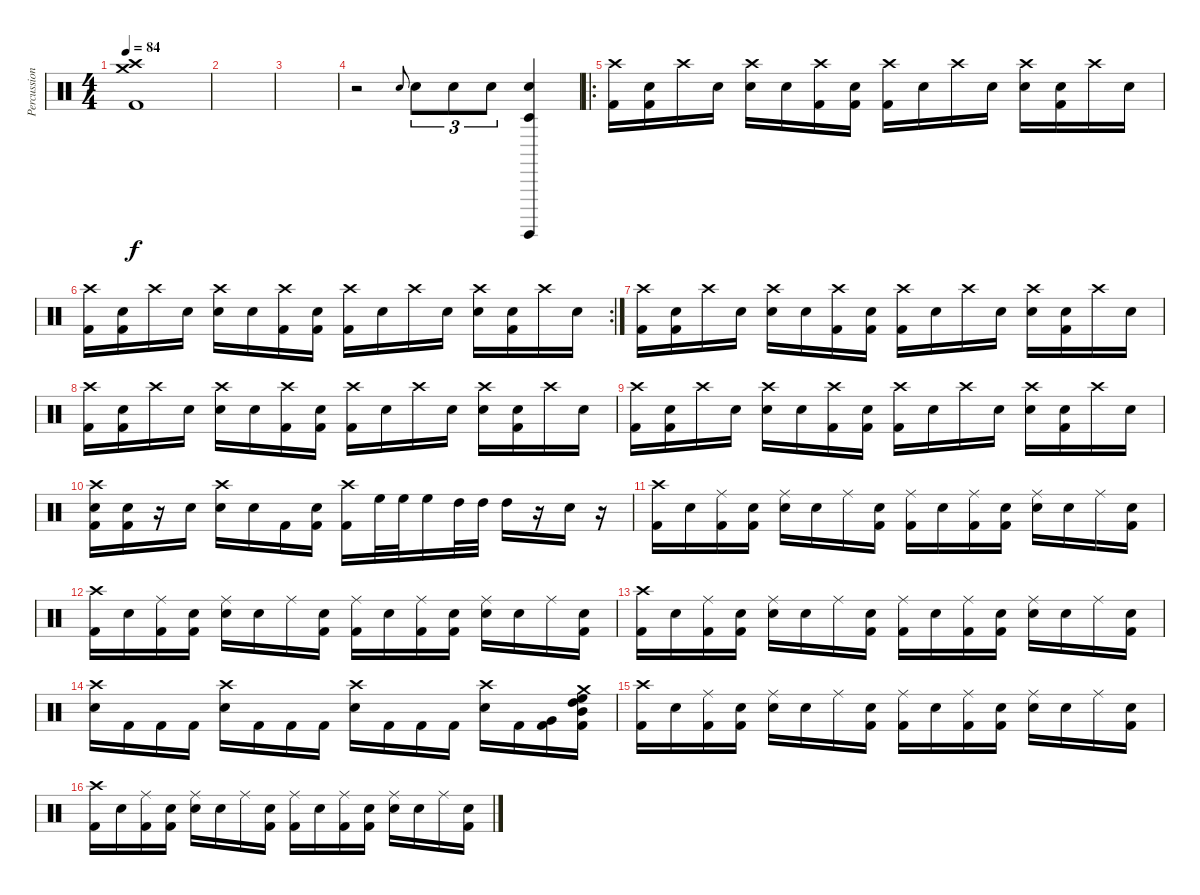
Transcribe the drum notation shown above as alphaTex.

\track ("Percussion" "Percussion") {instrument percussion}
\staff {score}
\articulation defaults
\ts (4 4)
\tempo 84
\clef neutral
\ks c
("Crash high (hit)" "Crash medium (hit)" "Kick (hit) 2").1{dy f} |
|
|
r.2 "Snare (hit) 2".8{gr onbeat} "Snare (hit) 2".8{tu (3 2)} "Snare (hit) 2".8{tu (3 2)} "Snare (hit) 2".8{tu (3 2)} ("Timbale low (hit)" "Snare (hit) 2" "Surdo (hit)").4 |
\ro
("Crash high (hit)" "Kick (hit) 2").16 ("Snare (hit)" "Kick (hit) 2").16 "Crash high (hit)".16 "Snare (hit)".16 ("Crash high (hit)" "Snare (hit) 2").16 "Snare (hit)".16 ("Crash high (hit)" "Kick (hit) 2").16 ("Snare (hit)" "Kick (hit) 2").16 ("Crash high (hit)" "Kick (hit) 2").16 "Snare (hit)".16 "Crash high (hit)".16 "Snare (hit)".16 ("Crash high (hit)" "Snare (hit) 2").16 ("Snare (hit)" "Kick (hit) 2").16 "Crash high (hit)".16 "Snare (hit)".16 |
\rc 2
("Crash high (hit)" "Kick (hit) 2").16 ("Snare (hit)" "Kick (hit) 2").16 "Crash high (hit)".16 "Snare (hit)".16 ("Crash high (hit)" "Snare (hit) 2").16 "Snare (hit)".16 ("Crash high (hit)" "Kick (hit) 2").16 ("Snare (hit)" "Kick (hit) 2").16 ("Crash high (hit)" "Kick (hit) 2").16 "Snare (hit)".16 "Crash high (hit)".16 "Snare (hit)".16 ("Crash high (hit)" "Snare (hit) 2").16 ("Snare (hit)" "Kick (hit) 2").16 "Crash high (hit)".16 "Snare (hit)".16 |
("Crash high (hit)" "Kick (hit) 2").16 ("Snare (hit)" "Kick (hit) 2").16 "Crash high (hit)".16 "Snare (hit)".16 ("Crash high (hit)" "Snare (hit) 2").16 "Snare (hit)".16 ("Crash high (hit)" "Kick (hit) 2").16 ("Snare (hit)" "Kick (hit) 2").16 ("Crash high (hit)" "Kick (hit) 2").16 "Snare (hit)".16 "Crash high (hit)".16 "Snare (hit)".16 ("Crash high (hit)" "Snare (hit) 2").16 ("Snare (hit)" "Kick (hit) 2").16 "Crash high (hit)".16 "Snare (hit)".16 |
("Crash high (hit)" "Kick (hit) 2").16 ("Snare (hit)" "Kick (hit) 2").16 "Crash high (hit)".16 "Snare (hit)".16 ("Crash high (hit)" "Snare (hit) 2").16 "Snare (hit)".16 ("Crash high (hit)" "Kick (hit) 2").16 ("Snare (hit)" "Kick (hit) 2").16 ("Crash high (hit)" "Kick (hit) 2").16 "Snare (hit)".16 "Crash high (hit)".16 "Snare (hit)".16 ("Crash high (hit)" "Snare (hit) 2").16 ("Snare (hit)" "Kick (hit) 2").16 "Crash high (hit)".16 "Snare (hit)".16 |
("Crash high (hit)" "Kick (hit) 2").16 ("Snare (hit)" "Kick (hit) 2").16 "Crash high (hit)".16 "Snare (hit)".16 ("Crash high (hit)" "Snare (hit) 2").16 "Snare (hit)".16 ("Crash high (hit)" "Kick (hit) 2").16 ("Snare (hit)" "Kick (hit) 2").16 ("Crash high (hit)" "Kick (hit) 2").16 "Snare (hit)".16 "Crash high (hit)".16 "Snare (hit)".16 ("Crash high (hit)" "Snare (hit) 2").16 ("Snare (hit)" "Kick (hit) 2").16 "Crash high (hit)".16 "Snare (hit)".16 |
("Crash high (hit)" "Snare (hit) 2" "Kick (hit) 2").16 ("Snare (hit)" "Kick (hit) 2").16 r.16 "Snare (hit)".16 ("Crash high (hit)" "Snare (hit) 2").16 "Snare (hit)".16 "Kick (hit) 2".16 ("Snare (hit)" "Kick (hit) 2").16 ("Crash high (hit)" "Kick (hit) 2").16 "High Floor Tom (hit)".32 "High Floor Tom (hit)".32 "High Floor Tom (hit)".16 "High Tom (hit)".32 "High Tom (hit)".32 "High Tom (hit)".16 r.16 "Snare (hit) 2".16 r.16 |
("Crash high (hit)" "Kick (hit) 2").16 "Snare (hit)".16 ("Ride (middle)" "Kick (hit) 2").16 ("Snare (hit)" "Kick (hit) 2").16 ("Ride (middle)" "Snare (hit) 2").16 "Snare (hit)".16 "Ride (middle)".16 ("Snare (hit)" "Kick (hit) 2").16 ("Ride (middle)" "Kick (hit) 2").16 "Snare (hit)".16 ("Ride (middle)" "Kick (hit) 2").16 ("Snare (hit)" "Kick (hit) 2").16 ("Ride (middle)" "Snare (hit) 2").16 "Snare (hit)".16 "Ride (middle)".16 ("Snare (hit)" "Kick (hit) 2").16 |
("Crash high (hit)" "Kick (hit) 2").16 "Snare (hit)".16 ("Ride (middle)" "Kick (hit) 2").16 ("Snare (hit)" "Kick (hit) 2").16 ("Ride (middle)" "Snare (hit) 2").16 "Snare (hit)".16 "Ride (middle)".16 ("Snare (hit)" "Kick (hit) 2").16 ("Ride (middle)" "Kick (hit) 2").16 "Snare (hit)".16 ("Ride (middle)" "Kick (hit) 2").16 ("Snare (hit)" "Kick (hit) 2").16 ("Ride (middle)" "Snare (hit) 2").16 "Snare (hit)".16 "Ride (middle)".16 ("Snare (hit)" "Kick (hit) 2").16 |
("Crash high (hit)" "Kick (hit) 2").16 "Snare (hit)".16 ("Ride (middle)" "Kick (hit) 2").16 ("Snare (hit)" "Kick (hit) 2").16 ("Ride (middle)" "Snare (hit) 2").16 "Snare (hit)".16 "Ride (middle)".16 ("Snare (hit)" "Kick (hit) 2").16 ("Ride (middle)" "Kick (hit) 2").16 "Snare (hit)".16 ("Ride (middle)" "Kick (hit) 2").16 ("Snare (hit)" "Kick (hit) 2").16 ("Ride (middle)" "Snare (hit) 2").16 "Snare (hit)".16 "Ride (middle)".16 ("Snare (hit)" "Kick (hit) 2").16 |
("Crash high (hit)" "Snare (hit) 2").16 "Kick (hit) 2".16 "Kick (hit) 2".16 "Kick (hit) 2".16 ("Crash high (hit)" "Snare (hit) 2").16 "Kick (hit) 2".16 "Kick (hit) 2".16 "Kick (hit) 2".16 ("Crash high (hit)" "Snare (hit) 2").16 "Kick (hit) 2".16 "Kick (hit) 2".16 "Kick (hit) 2".16 ("Crash high (hit)" "Snare (hit) 2").16 "Kick (hit) 2".16 ("Very Low Tom (hit)" "Kick (hit) 2").16 ("Crash medium (hit)" "High Tom (hit)" "Mid Tom (hit)" "High Floor Tom (hit)" "Kick (hit) 2").16 |
("Crash high (hit)" "Kick (hit) 2").16 "Snare (hit)".16 ("Ride (middle)" "Kick (hit) 2").16 ("Snare (hit)" "Kick (hit) 2").16 ("Ride (middle)" "Snare (hit) 2").16 "Snare (hit)".16 "Ride (middle)".16 ("Snare (hit)" "Kick (hit) 2").16 ("Ride (middle)" "Kick (hit) 2").16 "Snare (hit)".16 ("Ride (middle)" "Kick (hit) 2").16 ("Snare (hit)" "Kick (hit) 2").16 ("Ride (middle)" "Snare (hit) 2").16 "Snare (hit)".16 "Ride (middle)".16 ("Snare (hit)" "Kick (hit) 2").16 |
("Crash high (hit)" "Kick (hit) 2").16 "Snare (hit)".16 ("Ride (middle)" "Kick (hit) 2").16 ("Snare (hit)" "Kick (hit) 2").16 ("Ride (middle)" "Snare (hit) 2").16 "Snare (hit)".16 "Ride (middle)".16 ("Snare (hit)" "Kick (hit) 2").16 ("Ride (middle)" "Kick (hit) 2").16 "Snare (hit)".16 ("Ride (middle)" "Kick (hit) 2").16 ("Snare (hit)" "Kick (hit) 2").16 ("Ride (middle)" "Snare (hit) 2").16 "Snare (hit)".16 "Ride (middle)".16 ("Snare (hit)" "Kick (hit) 2").16
